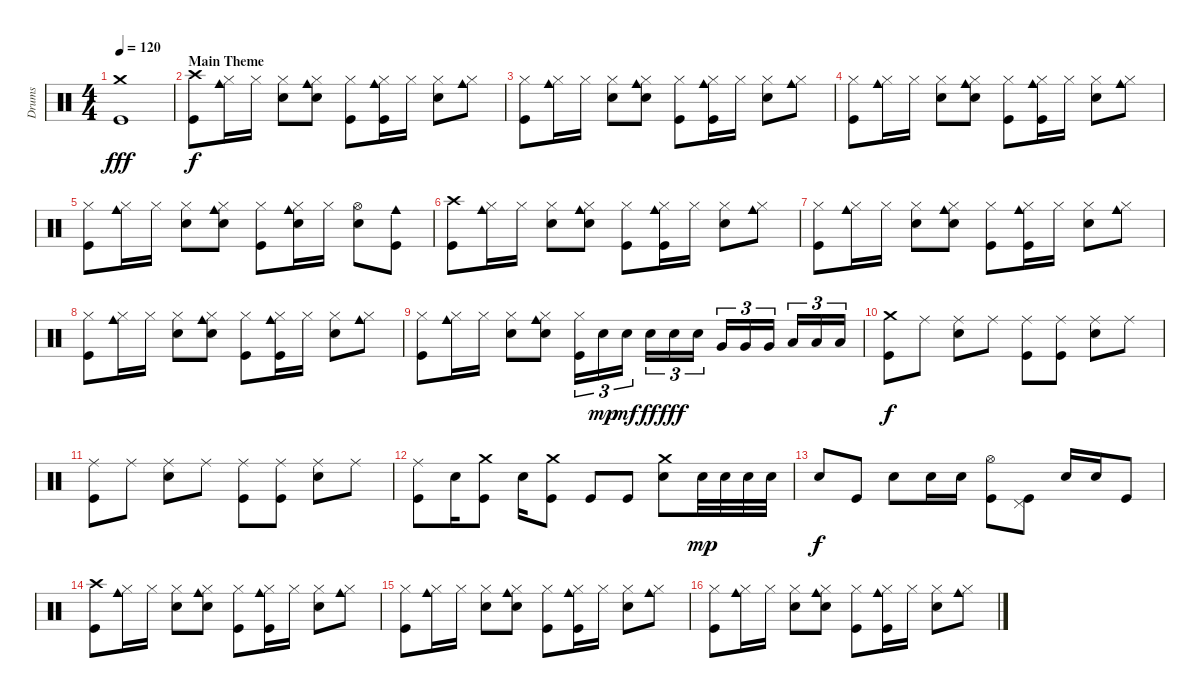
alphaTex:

\track ("Drums" "Drums") {instrument percussion}
\staff {score}
\articulation defaults
\ts (4 4)
\tempo 120
\clef neutral
\ks c
("Crash medium (hit)" "Kick (hit)").1{dy fff} |
\section ("" "Main Theme")
("Crash high (hit)" "Kick (hit)").8{dy f} ("Cowbell medium (hit)" "Hi-Hat (closed)").16 "Hi-Hat (closed)".16 ("Hi-Hat (closed)" "Electric Snare (hit)").8 ("Cowbell medium (hit)" "Hi-Hat (closed)" "Electric Snare (hit)").8 ("Hi-Hat (closed)" "Kick (hit)").8 ("Cowbell medium (hit)" "Hi-Hat (closed)" "Kick (hit)").16 "Hi-Hat (closed)".16 ("Hi-Hat (closed)" "Electric Snare (hit)").8 ("Cowbell medium (hit)" "Hi-Hat (closed)").8 |
("Hi-Hat (closed)" "Kick (hit)").8 ("Cowbell medium (hit)" "Hi-Hat (closed)").16 "Hi-Hat (closed)".16 ("Hi-Hat (closed)" "Electric Snare (hit)").8 ("Cowbell medium (hit)" "Hi-Hat (closed)" "Electric Snare (hit)").8 ("Hi-Hat (closed)" "Kick (hit)").8 ("Cowbell medium (hit)" "Hi-Hat (closed)" "Kick (hit)").16 "Hi-Hat (closed)".16 ("Hi-Hat (closed)" "Electric Snare (hit)").8 ("Cowbell medium (hit)" "Hi-Hat (closed)").8 |
("Hi-Hat (closed)" "Kick (hit)").8 ("Cowbell medium (hit)" "Hi-Hat (closed)").16 "Hi-Hat (closed)".16 ("Hi-Hat (closed)" "Electric Snare (hit)").8 ("Cowbell medium (hit)" "Hi-Hat (closed)" "Electric Snare (hit)").8 ("Hi-Hat (closed)" "Kick (hit)").8 ("Cowbell medium (hit)" "Hi-Hat (closed)" "Kick (hit)").16 "Hi-Hat (closed)".16 ("Hi-Hat (closed)" "Electric Snare (hit)").8 ("Cowbell medium (hit)" "Hi-Hat (closed)").8 |
("Hi-Hat (closed)" "Kick (hit)").8 ("Cowbell medium (hit)" "Hi-Hat (closed)").16 "Hi-Hat (closed)".16 ("Hi-Hat (closed)" "Electric Snare (hit)").8 ("Cowbell medium (hit)" "Hi-Hat (closed)" "Electric Snare (hit)").8 ("Hi-Hat (closed)" "Kick (hit)").8 ("Cowbell medium (hit)" "Hi-Hat (closed)" "Electric Snare (hit)").16 "Hi-Hat (closed)".16 ("Hi-Hat (open)" "Electric Snare (hit)").8 ("Cowbell medium (hit)" "Kick (hit)").8 |
("Crash high (hit)" "Kick (hit)").8 ("Cowbell medium (hit)" "Hi-Hat (closed)").16 "Hi-Hat (closed)".16 ("Hi-Hat (closed)" "Electric Snare (hit)").8 ("Cowbell medium (hit)" "Hi-Hat (closed)" "Electric Snare (hit)").8 ("Hi-Hat (closed)" "Kick (hit)").8 ("Cowbell medium (hit)" "Hi-Hat (closed)" "Kick (hit)").16 "Hi-Hat (closed)".16 ("Hi-Hat (closed)" "Electric Snare (hit)").8 ("Cowbell medium (hit)" "Hi-Hat (closed)").8 |
("Hi-Hat (closed)" "Kick (hit)").8 ("Cowbell medium (hit)" "Hi-Hat (closed)").16 "Hi-Hat (closed)".16 ("Hi-Hat (closed)" "Electric Snare (hit)").8 ("Cowbell medium (hit)" "Hi-Hat (closed)" "Electric Snare (hit)").8 ("Hi-Hat (closed)" "Kick (hit)").8 ("Cowbell medium (hit)" "Hi-Hat (closed)" "Kick (hit)").16 "Hi-Hat (closed)".16 ("Hi-Hat (closed)" "Electric Snare (hit)").8 ("Cowbell medium (hit)" "Hi-Hat (closed)").8 |
("Hi-Hat (closed)" "Kick (hit)").8 ("Cowbell medium (hit)" "Hi-Hat (closed)").16 "Hi-Hat (closed)".16 ("Hi-Hat (closed)" "Electric Snare (hit)").8 ("Cowbell medium (hit)" "Hi-Hat (closed)" "Electric Snare (hit)").8 ("Hi-Hat (closed)" "Kick (hit)").8 ("Cowbell medium (hit)" "Hi-Hat (closed)" "Kick (hit)").16 "Hi-Hat (closed)".16 ("Hi-Hat (closed)" "Electric Snare (hit)").8 ("Cowbell medium (hit)" "Hi-Hat (closed)").8 |
("Hi-Hat (closed)" "Kick (hit)").8 ("Cowbell medium (hit)" "Hi-Hat (closed)").16 "Hi-Hat (closed)".16 ("Hi-Hat (closed)" "Electric Snare (hit)").8 ("Cowbell medium (hit)" "Hi-Hat (closed)" "Electric Snare (hit)").8 ("Hi-Hat (closed)" "Kick (hit)").16{tu (3 2)} "Electric Snare (hit)".16{tu (3 2) dy mp} "Electric Snare (hit)".16{tu (3 2) dy mf} "Electric Snare (hit)".16{tu (3 2) dy ff} "Electric Snare (hit)".16{tu (3 2) dy fff} "Electric Snare (hit)".16{tu (3 2)} "Very Low Tom (hit)".16{tu (3 2)} "Very Low Tom (hit)".16{tu (3 2)} "Very Low Tom (hit)".16{tu (3 2)} "Low Floor Tom (hit)".16{tu (3 2)} "Low Floor Tom (hit)".16{tu (3 2)} "Low Floor Tom (hit)".16{tu (3 2)} |
("Crash medium (hit)" "Kick (hit)").8{dy f} "Ride (middle)".8 ("Ride (middle)" "Electric Snare (hit)").8 "Ride (middle)".8 ("Ride (middle)" "Kick (hit)").8 ("Ride (middle)" "Kick (hit)").8 ("Ride (middle)" "Electric Snare (hit)").8 "Ride (middle)".8 |
("Ride (middle)" "Kick (hit)").8 "Ride (middle)".8 ("Ride (middle)" "Electric Snare (hit)").8 "Ride (middle)".8 ("Ride (middle)" "Kick (hit)").8 ("Ride (middle)" "Kick (hit)").8 ("Ride (middle)" "Electric Snare (hit)").8 "Ride (middle)".8 |
("Ride (middle)" "Kick (hit)").8 "Electric Snare (hit)".16 ("Crash medium (hit)" "Kick (hit)").8 "Electric Snare (hit)".16 ("Crash medium (hit)" "Kick (hit)").8 "Kick (hit)".8 "Kick (hit)".8 ("Crash medium (hit)" "Electric Snare (hit)").8 "Electric Snare (hit)".32{dy mp} "Electric Snare (hit)".32 "Electric Snare (hit)".32 "Electric Snare (hit)".32 |
"Electric Snare (hit)".8{dy f} "Kick (hit)".8 "Electric Snare (hit)".8 "Electric Snare (hit)".16 "Electric Snare (hit)".16 ("Hi-Hat (open)" "Kick (hit)").8 ("Pedal Hi-Hat (hit)" "Kick (hit)").8 "Electric Snare (hit)".16 "Electric Snare (hit)".16 "Kick (hit)".8 |
("Crash high (hit)" "Kick (hit)").8 ("Cowbell medium (hit)" "Hi-Hat (closed)").16 "Hi-Hat (closed)".16 ("Hi-Hat (closed)" "Electric Snare (hit)").8 ("Cowbell medium (hit)" "Hi-Hat (closed)" "Electric Snare (hit)").8 ("Hi-Hat (closed)" "Kick (hit)").8 ("Cowbell medium (hit)" "Hi-Hat (closed)" "Kick (hit)").16 "Hi-Hat (closed)".16 ("Hi-Hat (closed)" "Electric Snare (hit)").8 ("Cowbell medium (hit)" "Hi-Hat (closed)").8 |
("Hi-Hat (closed)" "Kick (hit)").8 ("Cowbell medium (hit)" "Hi-Hat (closed)").16 "Hi-Hat (closed)".16 ("Hi-Hat (closed)" "Electric Snare (hit)").8 ("Cowbell medium (hit)" "Hi-Hat (closed)" "Electric Snare (hit)").8 ("Hi-Hat (closed)" "Kick (hit)").8 ("Cowbell medium (hit)" "Hi-Hat (closed)" "Kick (hit)").16 "Hi-Hat (closed)".16 ("Hi-Hat (closed)" "Electric Snare (hit)").8 ("Cowbell medium (hit)" "Hi-Hat (closed)").8 |
("Hi-Hat (closed)" "Kick (hit)").8 ("Cowbell medium (hit)" "Hi-Hat (closed)").16 "Hi-Hat (closed)".16 ("Hi-Hat (closed)" "Electric Snare (hit)").8 ("Cowbell medium (hit)" "Hi-Hat (closed)" "Electric Snare (hit)").8 ("Hi-Hat (closed)" "Kick (hit)").8 ("Cowbell medium (hit)" "Hi-Hat (closed)" "Kick (hit)").16 "Hi-Hat (closed)".16 ("Hi-Hat (closed)" "Electric Snare (hit)").8 ("Cowbell medium (hit)" "Hi-Hat (closed)").8
